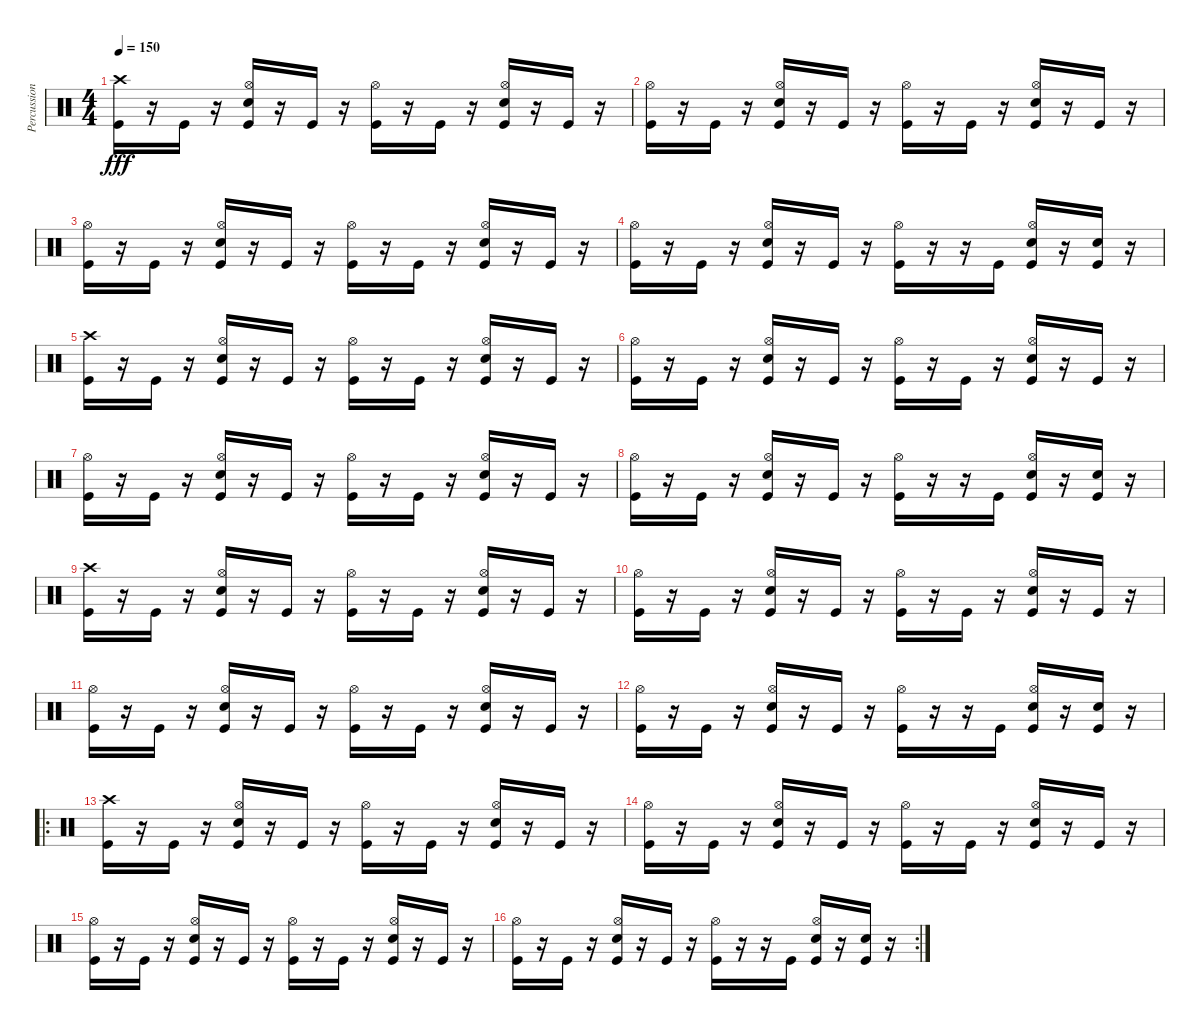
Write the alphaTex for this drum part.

\track ("Percussion" "Percussion") {instrument percussion}
\staff {score}
\articulation defaults
\ts (4 4)
\tempo 150
\clef neutral
\ks c
("Crash high (hit)" "Kick (hit)").16{dy fff} r.16 "Kick (hit)".16 r.16 ("Hi-Hat (open)" "Snare (hit) 2" "Kick (hit)").16 r.16 "Kick (hit)".16 r.16 ("Hi-Hat (open)" "Kick (hit)").16 r.16 "Kick (hit)".16 r.16 ("Hi-Hat (open)" "Snare (hit) 2" "Kick (hit)").16 r.16 "Kick (hit)".16 r.16 |
("Hi-Hat (open)" "Kick (hit)").16 r.16 "Kick (hit)".16 r.16 ("Hi-Hat (open)" "Snare (hit) 2" "Kick (hit)").16 r.16 "Kick (hit)".16 r.16 ("Hi-Hat (open)" "Kick (hit)").16 r.16 "Kick (hit)".16 r.16 ("Hi-Hat (open)" "Snare (hit) 2" "Kick (hit)").16 r.16 "Kick (hit)".16 r.16 |
("Hi-Hat (open)" "Kick (hit)").16 r.16 "Kick (hit)".16 r.16 ("Hi-Hat (open)" "Snare (hit) 2" "Kick (hit)").16 r.16 "Kick (hit)".16 r.16 ("Hi-Hat (open)" "Kick (hit)").16 r.16 "Kick (hit)".16 r.16 ("Hi-Hat (open)" "Snare (hit) 2" "Kick (hit)").16 r.16 "Kick (hit)".16 r.16 |
("Hi-Hat (open)" "Kick (hit)").16 r.16 "Kick (hit)".16 r.16 ("Hi-Hat (open)" "Snare (hit) 2" "Kick (hit)").16 r.16 "Kick (hit)".16 r.16 ("Hi-Hat (open)" "Kick (hit)").16 r.16 r.16 "Kick (hit)".16 ("Hi-Hat (open)" "Snare (hit) 2" "Kick (hit)").16 r.16 ("Snare (hit) 2" "Kick (hit)").16 r.16 |
("Crash high (hit)" "Kick (hit)").16 r.16 "Kick (hit)".16 r.16 ("Hi-Hat (open)" "Snare (hit) 2" "Kick (hit)").16 r.16 "Kick (hit)".16 r.16 ("Hi-Hat (open)" "Kick (hit)").16 r.16 "Kick (hit)".16 r.16 ("Hi-Hat (open)" "Snare (hit) 2" "Kick (hit)").16 r.16 "Kick (hit)".16 r.16 |
("Hi-Hat (open)" "Kick (hit)").16 r.16 "Kick (hit)".16 r.16 ("Hi-Hat (open)" "Snare (hit) 2" "Kick (hit)").16 r.16 "Kick (hit)".16 r.16 ("Hi-Hat (open)" "Kick (hit)").16 r.16 "Kick (hit)".16 r.16 ("Hi-Hat (open)" "Snare (hit) 2" "Kick (hit)").16 r.16 "Kick (hit)".16 r.16 |
("Hi-Hat (open)" "Kick (hit)").16 r.16 "Kick (hit)".16 r.16 ("Hi-Hat (open)" "Snare (hit) 2" "Kick (hit)").16 r.16 "Kick (hit)".16 r.16 ("Hi-Hat (open)" "Kick (hit)").16 r.16 "Kick (hit)".16 r.16 ("Hi-Hat (open)" "Snare (hit) 2" "Kick (hit)").16 r.16 "Kick (hit)".16 r.16 |
("Hi-Hat (open)" "Kick (hit)").16 r.16 "Kick (hit)".16 r.16 ("Hi-Hat (open)" "Snare (hit) 2" "Kick (hit)").16 r.16 "Kick (hit)".16 r.16 ("Hi-Hat (open)" "Kick (hit)").16 r.16 r.16 "Kick (hit)".16 ("Hi-Hat (open)" "Snare (hit) 2" "Kick (hit)").16 r.16 ("Snare (hit) 2" "Kick (hit)").16 r.16 |
("Crash high (hit)" "Kick (hit)").16 r.16 "Kick (hit)".16 r.16 ("Hi-Hat (open)" "Snare (hit) 2" "Kick (hit)").16 r.16 "Kick (hit)".16 r.16 ("Hi-Hat (open)" "Kick (hit)").16 r.16 "Kick (hit)".16 r.16 ("Hi-Hat (open)" "Snare (hit) 2" "Kick (hit)").16 r.16 "Kick (hit)".16 r.16 |
("Hi-Hat (open)" "Kick (hit)").16 r.16 "Kick (hit)".16 r.16 ("Hi-Hat (open)" "Snare (hit) 2" "Kick (hit)").16 r.16 "Kick (hit)".16 r.16 ("Hi-Hat (open)" "Kick (hit)").16 r.16 "Kick (hit)".16 r.16 ("Hi-Hat (open)" "Snare (hit) 2" "Kick (hit)").16 r.16 "Kick (hit)".16 r.16 |
("Hi-Hat (open)" "Kick (hit)").16 r.16 "Kick (hit)".16 r.16 ("Hi-Hat (open)" "Snare (hit) 2" "Kick (hit)").16 r.16 "Kick (hit)".16 r.16 ("Hi-Hat (open)" "Kick (hit)").16 r.16 "Kick (hit)".16 r.16 ("Hi-Hat (open)" "Snare (hit) 2" "Kick (hit)").16 r.16 "Kick (hit)".16 r.16 |
("Hi-Hat (open)" "Kick (hit)").16 r.16 "Kick (hit)".16 r.16 ("Hi-Hat (open)" "Snare (hit) 2" "Kick (hit)").16 r.16 "Kick (hit)".16 r.16 ("Hi-Hat (open)" "Kick (hit)").16 r.16 r.16 "Kick (hit)".16 ("Hi-Hat (open)" "Snare (hit) 2" "Kick (hit)").16 r.16 ("Snare (hit) 2" "Kick (hit)").16 r.16 |
\ro
("Crash high (hit)" "Kick (hit)").16 r.16 "Kick (hit)".16 r.16 ("Hi-Hat (open)" "Snare (hit) 2" "Kick (hit)").16 r.16 "Kick (hit)".16 r.16 ("Hi-Hat (open)" "Kick (hit)").16 r.16 "Kick (hit)".16 r.16 ("Hi-Hat (open)" "Snare (hit) 2" "Kick (hit)").16 r.16 "Kick (hit)".16 r.16 |
("Hi-Hat (open)" "Kick (hit)").16 r.16 "Kick (hit)".16 r.16 ("Hi-Hat (open)" "Snare (hit) 2" "Kick (hit)").16 r.16 "Kick (hit)".16 r.16 ("Hi-Hat (open)" "Kick (hit)").16 r.16 "Kick (hit)".16 r.16 ("Hi-Hat (open)" "Snare (hit) 2" "Kick (hit)").16 r.16 "Kick (hit)".16 r.16 |
("Hi-Hat (open)" "Kick (hit)").16 r.16 "Kick (hit)".16 r.16 ("Hi-Hat (open)" "Snare (hit) 2" "Kick (hit)").16 r.16 "Kick (hit)".16 r.16 ("Hi-Hat (open)" "Kick (hit)").16 r.16 "Kick (hit)".16 r.16 ("Hi-Hat (open)" "Snare (hit) 2" "Kick (hit)").16 r.16 "Kick (hit)".16 r.16 |
\rc 2
("Hi-Hat (open)" "Kick (hit)").16 r.16 "Kick (hit)".16 r.16 ("Hi-Hat (open)" "Snare (hit) 2" "Kick (hit)").16 r.16 "Kick (hit)".16 r.16 ("Hi-Hat (open)" "Kick (hit)").16 r.16 r.16 "Kick (hit)".16 ("Hi-Hat (open)" "Snare (hit) 2" "Kick (hit)").16 r.16 ("Snare (hit) 2" "Kick (hit)").16 r.16
